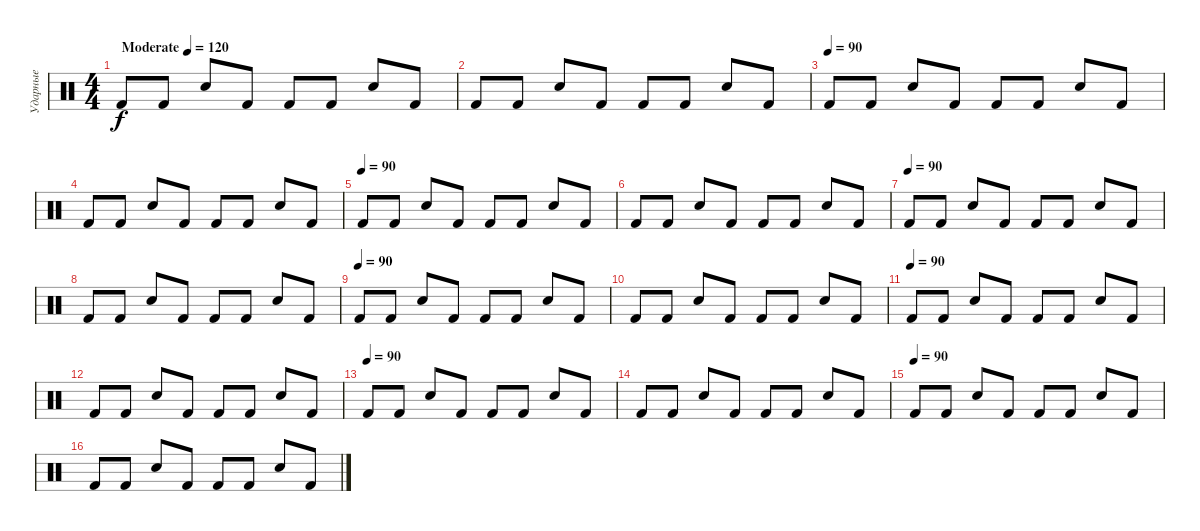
\track ("Ударные" "Ударные") {instrument percussion}
\staff {score}
\articulation defaults
\ts (4 4)
\tempo (120 "Moderate")
\tempo 90
\tempo (120 "Moderate")
\clef neutral
\ks c "Kick (hit) 2".8{dy f} "Kick (hit) 2".8 "Snare (hit) 2".8 "Kick (hit) 2".8 "Kick (hit) 2".8 "Kick (hit) 2".8 "Snare (hit) 2".8 "Kick (hit) 2".8
|
"Kick (hit) 2".8 "Kick (hit) 2".8 "Snare (hit) 2".8 "Kick (hit) 2".8 "Kick (hit) 2".8 "Kick (hit) 2".8 "Snare (hit) 2".8 "Kick (hit) 2".8 |
\tempo (90)
"Kick (hit) 2".8 "Kick (hit) 2".8 "Snare (hit) 2".8 "Kick (hit) 2".8 "Kick (hit) 2".8 "Kick (hit) 2".8 "Snare (hit) 2".8 "Kick (hit) 2".8 |
"Kick (hit) 2".8 "Kick (hit) 2".8 "Snare (hit) 2".8 "Kick (hit) 2".8 "Kick (hit) 2".8 "Kick (hit) 2".8 "Snare (hit) 2".8 "Kick (hit) 2".8 |
\tempo (90)
"Kick (hit) 2".8 "Kick (hit) 2".8 "Snare (hit) 2".8 "Kick (hit) 2".8 "Kick (hit) 2".8 "Kick (hit) 2".8 "Snare (hit) 2".8 "Kick (hit) 2".8 |
"Kick (hit) 2".8 "Kick (hit) 2".8 "Snare (hit) 2".8 "Kick (hit) 2".8 "Kick (hit) 2".8 "Kick (hit) 2".8 "Snare (hit) 2".8 "Kick (hit) 2".8 |
\tempo (90)
"Kick (hit) 2".8 "Kick (hit) 2".8 "Snare (hit) 2".8 "Kick (hit) 2".8 "Kick (hit) 2".8 "Kick (hit) 2".8 "Snare (hit) 2".8 "Kick (hit) 2".8 |
"Kick (hit) 2".8 "Kick (hit) 2".8 "Snare (hit) 2".8 "Kick (hit) 2".8 "Kick (hit) 2".8 "Kick (hit) 2".8 "Snare (hit) 2".8 "Kick (hit) 2".8 |
\tempo (90)
"Kick (hit) 2".8 "Kick (hit) 2".8 "Snare (hit) 2".8 "Kick (hit) 2".8 "Kick (hit) 2".8 "Kick (hit) 2".8 "Snare (hit) 2".8 "Kick (hit) 2".8 |
"Kick (hit) 2".8 "Kick (hit) 2".8 "Snare (hit) 2".8 "Kick (hit) 2".8 "Kick (hit) 2".8 "Kick (hit) 2".8 "Snare (hit) 2".8 "Kick (hit) 2".8 |
\tempo (90)
"Kick (hit) 2".8 "Kick (hit) 2".8 "Snare (hit) 2".8 "Kick (hit) 2".8 "Kick (hit) 2".8 "Kick (hit) 2".8 "Snare (hit) 2".8 "Kick (hit) 2".8 |
"Kick (hit) 2".8 "Kick (hit) 2".8 "Snare (hit) 2".8 "Kick (hit) 2".8 "Kick (hit) 2".8 "Kick (hit) 2".8 "Snare (hit) 2".8 "Kick (hit) 2".8 |
\tempo (90)
"Kick (hit) 2".8 "Kick (hit) 2".8 "Snare (hit) 2".8 "Kick (hit) 2".8 "Kick (hit) 2".8 "Kick (hit) 2".8 "Snare (hit) 2".8 "Kick (hit) 2".8 |
"Kick (hit) 2".8 "Kick (hit) 2".8 "Snare (hit) 2".8 "Kick (hit) 2".8 "Kick (hit) 2".8 "Kick (hit) 2".8 "Snare (hit) 2".8 "Kick (hit) 2".8 |
\tempo (90)
"Kick (hit) 2".8 "Kick (hit) 2".8 "Snare (hit) 2".8 "Kick (hit) 2".8 "Kick (hit) 2".8 "Kick (hit) 2".8 "Snare (hit) 2".8 "Kick (hit) 2".8 |
"Kick (hit) 2".8 "Kick (hit) 2".8 "Snare (hit) 2".8 "Kick (hit) 2".8 "Kick (hit) 2".8 "Kick (hit) 2".8 "Snare (hit) 2".8 "Kick (hit) 2".8
